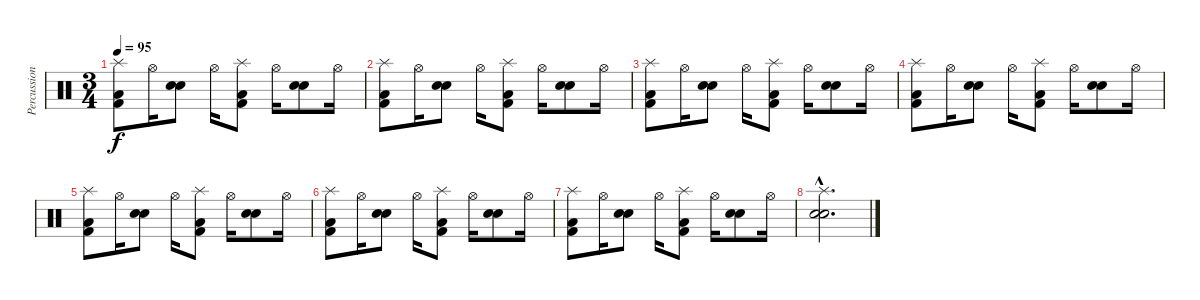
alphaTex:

\track ("Percussions" "Percussion") {instrument percussion}
\staff {score}
\articulation defaults
\ts (3 4)
\tempo 95
\clef neutral
\ks c
("Splash (hit)" "Kick (hit) 2" "Low Floor Tom (hit)").8{dy f} "Hi-Hat (open)".16 ("Snare (hit) 2" "Electric Snare (hit)").8 "Hi-Hat (open)".16 ("Splash (hit)" "Kick (hit) 2" "Low Floor Tom (hit)").8 "Hi-Hat (open)".16 ("Snare (hit) 2" "Electric Snare (hit)").8 "Hi-Hat (open)".16 |
("Splash (hit)" "Kick (hit) 2" "Low Floor Tom (hit)").8 "Hi-Hat (open)".16 ("Snare (hit) 2" "Electric Snare (hit)").8 "Hi-Hat (open)".16 ("Splash (hit)" "Kick (hit) 2" "Low Floor Tom (hit)").8 "Hi-Hat (open)".16 ("Snare (hit) 2" "Electric Snare (hit)").8 "Hi-Hat (open)".16 |
("Splash (hit)" "Kick (hit) 2" "Low Floor Tom (hit)").8 "Hi-Hat (open)".16 ("Snare (hit) 2" "Electric Snare (hit)").8 "Hi-Hat (open)".16 ("Splash (hit)" "Kick (hit) 2" "Low Floor Tom (hit)").8 "Hi-Hat (open)".16 ("Snare (hit) 2" "Electric Snare (hit)").8 "Hi-Hat (open)".16 |
("Splash (hit)" "Kick (hit) 2" "Low Floor Tom (hit)").8 "Hi-Hat (open)".16 ("Snare (hit) 2" "Electric Snare (hit)").8 "Hi-Hat (open)".16 ("Splash (hit)" "Kick (hit) 2" "Low Floor Tom (hit)").8 "Hi-Hat (open)".16 ("Snare (hit) 2" "Electric Snare (hit)").8 "Hi-Hat (open)".16 |
("Splash (hit)" "Kick (hit) 2" "Low Floor Tom (hit)").8 "Hi-Hat (open)".16 ("Snare (hit) 2" "Electric Snare (hit)").8 "Hi-Hat (open)".16 ("Splash (hit)" "Kick (hit) 2" "Low Floor Tom (hit)").8 "Hi-Hat (open)".16 ("Snare (hit) 2" "Electric Snare (hit)").8 "Hi-Hat (open)".16 |
("Splash (hit)" "Kick (hit) 2" "Low Floor Tom (hit)").8 "Hi-Hat (open)".16 ("Snare (hit) 2" "Electric Snare (hit)").8 "Hi-Hat (open)".16 ("Splash (hit)" "Kick (hit) 2" "Low Floor Tom (hit)").8 "Hi-Hat (open)".16 ("Snare (hit) 2" "Electric Snare (hit)").8 "Hi-Hat (open)".16 |
("Splash (hit)" "Kick (hit) 2" "Low Floor Tom (hit)").8 "Hi-Hat (open)".16 ("Snare (hit) 2" "Electric Snare (hit)").8 "Hi-Hat (open)".16 ("Splash (hit)" "Kick (hit) 2" "Low Floor Tom (hit)").8 "Hi-Hat (open)".16 ("Snare (hit) 2" "Electric Snare (hit)").8 "Hi-Hat (open)".16 |
("Splash (hit)"{hac} "Snare (hit) 2"{hac} "Electric Snare (hit)"{hac}).2{d}
